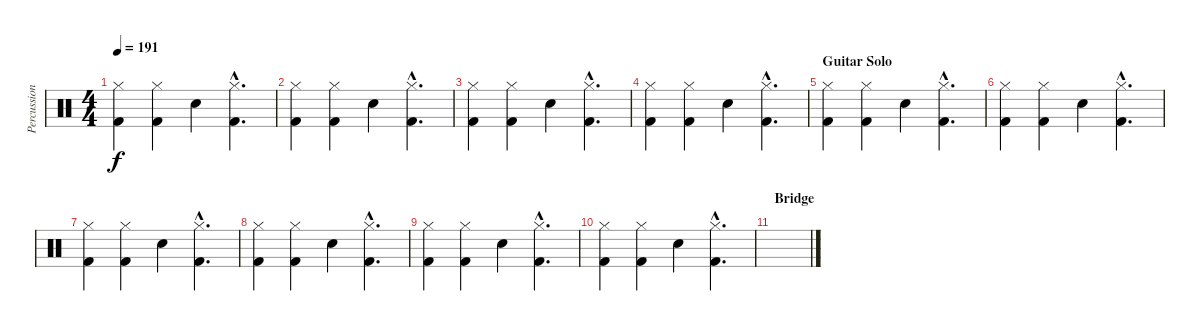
\track ("Percussion" "Percussion") {instrument percussion}
\staff {score}
\articulation defaults
\ts (4 4)
\tempo 191
\clef neutral
\ks c
("Hi-Hat (closed)" "Kick (hit) 2").4{dy f} ("Hi-Hat (closed)" "Kick (hit) 2").4 "Electric Snare (hit)".4 ("Hi-Hat (closed)"{hac} "Kick (hit) 2"{hac}).4{d} |
("Hi-Hat (closed)" "Kick (hit) 2").4 ("Hi-Hat (closed)" "Kick (hit) 2").4 "Electric Snare (hit)".4 ("Hi-Hat (closed)"{hac} "Kick (hit) 2"{hac}).4{d} |
("Hi-Hat (closed)" "Kick (hit) 2").4 ("Hi-Hat (closed)" "Kick (hit) 2").4 "Electric Snare (hit)".4 ("Hi-Hat (closed)"{hac} "Kick (hit) 2"{hac}).4{d} |
("Hi-Hat (closed)" "Kick (hit) 2").4 ("Hi-Hat (closed)" "Kick (hit) 2").4 "Electric Snare (hit)".4 ("Hi-Hat (closed)"{hac} "Kick (hit) 2"{hac}).4{d} |
\section ("" "Guitar Solo")
("Hi-Hat (closed)" "Kick (hit) 2").4 ("Hi-Hat (closed)" "Kick (hit) 2").4 "Electric Snare (hit)".4 ("Hi-Hat (closed)"{hac} "Kick (hit) 2"{hac}).4{d} |
("Hi-Hat (closed)" "Kick (hit) 2").4 ("Hi-Hat (closed)" "Kick (hit) 2").4 "Electric Snare (hit)".4 ("Hi-Hat (closed)"{hac} "Kick (hit) 2"{hac}).4{d} |
("Hi-Hat (closed)" "Kick (hit) 2").4 ("Hi-Hat (closed)" "Kick (hit) 2").4 "Electric Snare (hit)".4 ("Hi-Hat (closed)"{hac} "Kick (hit) 2"{hac}).4{d} |
("Hi-Hat (closed)" "Kick (hit) 2").4 ("Hi-Hat (closed)" "Kick (hit) 2").4 "Electric Snare (hit)".4 ("Hi-Hat (closed)"{hac} "Kick (hit) 2"{hac}).4{d} |
("Hi-Hat (closed)" "Kick (hit) 2").4 ("Hi-Hat (closed)" "Kick (hit) 2").4 "Electric Snare (hit)".4 ("Hi-Hat (closed)"{hac} "Kick (hit) 2"{hac}).4{d} |
("Hi-Hat (closed)" "Kick (hit) 2").4 ("Hi-Hat (closed)" "Kick (hit) 2").4 "Electric Snare (hit)".4 ("Hi-Hat (closed)"{hac} "Kick (hit) 2"{hac}).4{d} |
\section ("" "Bridge")
